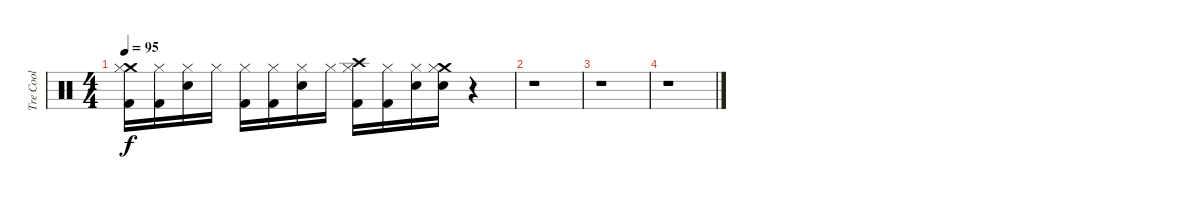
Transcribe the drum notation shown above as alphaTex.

\track ("Tre Cool" "Tre Cool") {instrument percussion}
\staff {score}
\articulation defaults
\ts (4 4)
\tempo 95
\clef neutral
\ks c
("Crash medium (hit)" "Hi-Hat (closed)" "Kick (hit) 2").16{dy f} ("Hi-Hat (closed)" "Kick (hit) 2").16 ("Hi-Hat (closed)" "Electric Snare (hit)").16 "Hi-Hat (closed)".16 ("Hi-Hat (closed)" "Kick (hit) 2").16 ("Hi-Hat (closed)" "Kick (hit) 2").16 ("Hi-Hat (closed)" "Electric Snare (hit)").16 "Hi-Hat (closed)".16 ("Crash high (hit)" "Hi-Hat (closed)" "Kick (hit) 2").16 ("Hi-Hat (closed)" "Kick (hit) 2").16 ("Hi-Hat (closed)" "Electric Snare (hit)").16 ("Crash medium (hit)" "Hi-Hat (closed)" "Electric Snare (hit)").16 r.4 |
r.1 |
r.1 |
r.1
